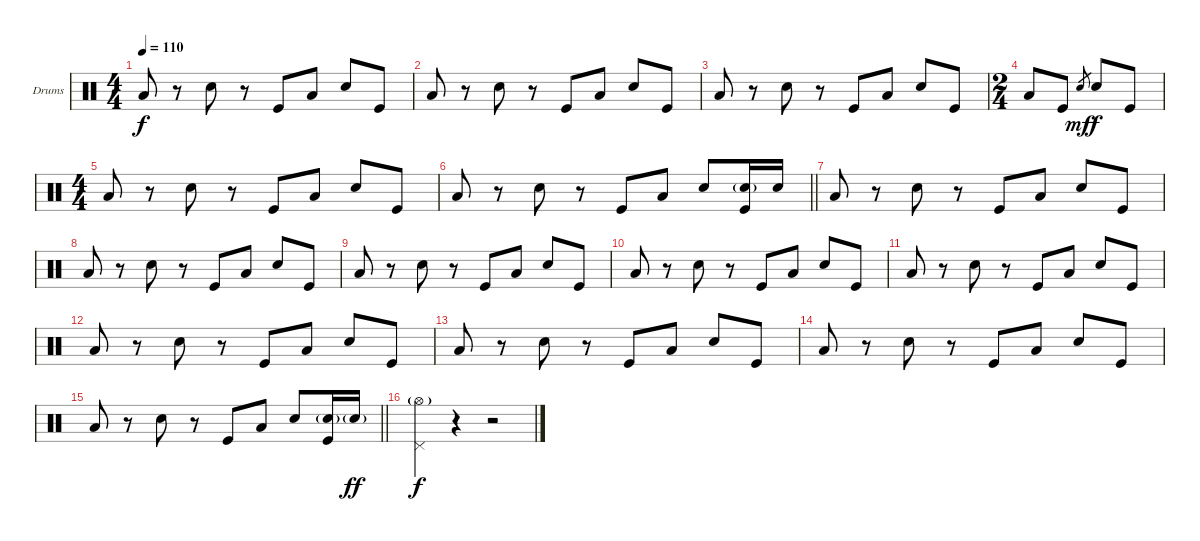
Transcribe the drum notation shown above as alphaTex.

\bracketExtendMode groupsimilarinstruments
\firstSystemTrackNameOrientation horizontal
\otherSystemsTrackNameOrientation horizontal
\track ("Drumkit" "Drums") {instrument percussion}
\staff {score}
\articulation defaults
\ts (4 4)
\tempo 110
\clef neutral
\ks c "Low Tom (hit)".8{dy f}
r.8 "Snare (hit) 2".8 r.8 "Kick (hit)".8 "Low Tom (hit)".8 "Snare (hit) 2".8 "Kick (hit)".8 |
"Low Tom (hit)".8 r.8 "Snare (hit) 2".8 r.8 "Kick (hit)".8 "Low Tom (hit)".8 "Snare (hit) 2".8 "Kick (hit)".8 |
"Low Tom (hit)".8 r.8 "Snare (hit) 2".8 r.8 "Kick (hit)".8 "Low Tom (hit)".8 "Snare (hit) 2".8 "Kick (hit)".8 |
\ts (2 4)
\beaming (8 2 2 2 2)
"Low Tom (hit)".8 "Kick (hit)".8 "Snare (hit) 2".8{gr dy mf} "Snare (hit) 2".8{dy f} "Kick (hit)".8 |
\ts (4 4)
\beaming (8 2 2 2 2)
"Low Tom (hit)".8 r.8 "Snare (hit) 2".8 r.8 "Kick (hit)".8 "Low Tom (hit)".8 "Snare (hit) 2".8 "Kick (hit)".8 |
\barLineRight lightlight "Low Tom (hit)".8
r.8 "Snare (hit) 2".8 r.8 "Kick (hit)".8 "Low Tom (hit)".8 "Snare (hit) 2".8 ("Snare (hit) 2"{g} "Kick (hit)").16 "Snare (hit) 2".16 |
"Low Tom (hit)".8 r.8 "Snare (hit) 2".8 r.8 "Kick (hit)".8 "Low Tom (hit)".8 "Snare (hit) 2".8 "Kick (hit)".8 |
"Low Tom (hit)".8 r.8 "Snare (hit) 2".8 r.8 "Kick (hit)".8 "Low Tom (hit)".8 "Snare (hit) 2".8 "Kick (hit)".8 |
"Low Tom (hit)".8 r.8 "Snare (hit) 2".8 r.8 "Kick (hit)".8 "Low Tom (hit)".8 "Snare (hit) 2".8 "Kick (hit)".8 |
"Low Tom (hit)".8 r.8 "Snare (hit) 2".8 r.8 "Kick (hit)".8 "Low Tom (hit)".8 "Snare (hit) 2".8 "Kick (hit)".8 |
"Low Tom (hit)".8 r.8 "Snare (hit) 2".8 r.8 "Kick (hit)".8 "Low Tom (hit)".8 "Snare (hit) 2".8 "Kick (hit)".8 |
"Low Tom (hit)".8 r.8 "Snare (hit) 2".8 r.8 "Kick (hit)".8 "Low Tom (hit)".8 "Snare (hit) 2".8 "Kick (hit)".8 |
"Low Tom (hit)".8 r.8 "Snare (hit) 2".8 r.8 "Kick (hit)".8 "Low Tom (hit)".8 "Snare (hit) 2".8 "Kick (hit)".8 |
"Low Tom (hit)".8 r.8 "Snare (hit) 2".8 r.8 "Kick (hit)".8 "Low Tom (hit)".8 "Snare (hit) 2".8 "Kick (hit)".8 |
\barLineRight lightlight "Low Tom (hit)".8
r.8 "Snare (hit) 2".8 r.8 "Kick (hit)".8 "Low Tom (hit)".8 "Snare (hit) 2".8 ("Kick (hit)" "Snare (hit) 2"{g}).16 "Snare (hit) 2"{g}.16{dy ff} |
("Pedal Hi-Hat (hit)" "Hi-Hat (open)"{g}).4{dy f} r.4 r.2
